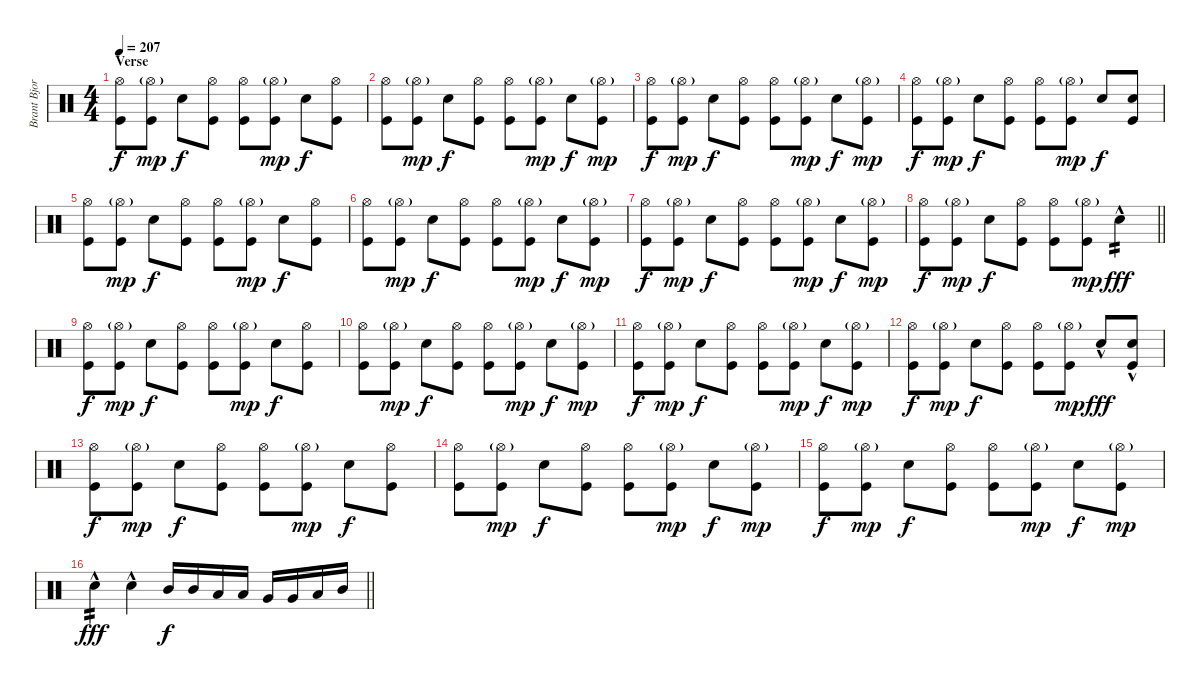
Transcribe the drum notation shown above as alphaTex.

\track ("Brant Bjork - Drums" "Brant Bjor") {instrument percussion}
\staff {score}
\articulation defaults
\ts (4 4)
\section ("" "Verse")
\tempo 207
\clef neutral
\ks c
("Hi-Hat (open)" "Kick (hit)").8{dy f} ("Hi-Hat (open)"{g} "Kick (hit)").8{dy mp} "Snare (hit) 2".8{dy f} ("Hi-Hat (open)" "Kick (hit)").8 ("Hi-Hat (open)" "Kick (hit)").8 ("Hi-Hat (open)"{g} "Kick (hit)").8{dy mp} "Snare (hit) 2".8{dy f} ("Hi-Hat (open)" "Kick (hit)").8 |
("Hi-Hat (open)" "Kick (hit)").8 ("Hi-Hat (open)"{g} "Kick (hit)").8{dy mp} "Snare (hit) 2".8{dy f} ("Hi-Hat (open)" "Kick (hit)").8 ("Hi-Hat (open)" "Kick (hit)").8 ("Hi-Hat (open)"{g} "Kick (hit)").8{dy mp} "Snare (hit) 2".8{dy f} ("Hi-Hat (open)"{g} "Kick (hit)").8{dy mp} |
("Hi-Hat (open)" "Kick (hit)").8{dy f} ("Hi-Hat (open)"{g} "Kick (hit)").8{dy mp} "Snare (hit) 2".8{dy f} ("Hi-Hat (open)" "Kick (hit)").8 ("Hi-Hat (open)" "Kick (hit)").8 ("Hi-Hat (open)"{g} "Kick (hit)").8{dy mp} "Snare (hit) 2".8{dy f} ("Hi-Hat (open)"{g} "Kick (hit)").8{dy mp} |
("Hi-Hat (open)" "Kick (hit)").8{dy f} ("Hi-Hat (open)"{g} "Kick (hit)").8{dy mp} "Snare (hit) 2".8{dy f} ("Hi-Hat (open)" "Kick (hit)").8 ("Hi-Hat (open)" "Kick (hit)").8 ("Hi-Hat (open)"{g} "Kick (hit)").8{dy mp} "Snare (hit) 2".8{dy f} ("Snare (hit) 2" "Kick (hit)").8 |
("Hi-Hat (open)" "Kick (hit)").8 ("Hi-Hat (open)"{g} "Kick (hit)").8{dy mp} "Snare (hit) 2".8{dy f} ("Hi-Hat (open)" "Kick (hit)").8 ("Hi-Hat (open)" "Kick (hit)").8 ("Hi-Hat (open)"{g} "Kick (hit)").8{dy mp} "Snare (hit) 2".8{dy f} ("Hi-Hat (open)" "Kick (hit)").8 |
("Hi-Hat (open)" "Kick (hit)").8 ("Hi-Hat (open)"{g} "Kick (hit)").8{dy mp} "Snare (hit) 2".8{dy f} ("Hi-Hat (open)" "Kick (hit)").8 ("Hi-Hat (open)" "Kick (hit)").8 ("Hi-Hat (open)"{g} "Kick (hit)").8{dy mp} "Snare (hit) 2".8{dy f} ("Hi-Hat (open)"{g} "Kick (hit)").8{dy mp} |
("Hi-Hat (open)" "Kick (hit)").8{dy f} ("Hi-Hat (open)"{g} "Kick (hit)").8{dy mp} "Snare (hit) 2".8{dy f} ("Hi-Hat (open)" "Kick (hit)").8 ("Hi-Hat (open)" "Kick (hit)").8 ("Hi-Hat (open)"{g} "Kick (hit)").8{dy mp} "Snare (hit) 2".8{dy f} ("Hi-Hat (open)"{g} "Kick (hit)").8{dy mp} |
\barLineRight lightlight
("Hi-Hat (open)" "Kick (hit)").8{dy f} ("Hi-Hat (open)"{g} "Kick (hit)").8{dy mp} "Snare (hit) 2".8{dy f} ("Hi-Hat (open)" "Kick (hit)").8 ("Hi-Hat (open)" "Kick (hit)").8 ("Hi-Hat (open)"{g} "Kick (hit)").8{dy mp} "Snare (hit) 2"{hac}.4{tp 2 dy fff} |
("Hi-Hat (open)" "Kick (hit)").8{dy f} ("Hi-Hat (open)"{g} "Kick (hit)").8{dy mp} "Snare (hit) 2".8{dy f} ("Hi-Hat (open)" "Kick (hit)").8 ("Hi-Hat (open)" "Kick (hit)").8 ("Hi-Hat (open)"{g} "Kick (hit)").8{dy mp} "Snare (hit) 2".8{dy f} ("Hi-Hat (open)" "Kick (hit)").8 |
("Hi-Hat (open)" "Kick (hit)").8 ("Hi-Hat (open)"{g} "Kick (hit)").8{dy mp} "Snare (hit) 2".8{dy f} ("Hi-Hat (open)" "Kick (hit)").8 ("Hi-Hat (open)" "Kick (hit)").8 ("Hi-Hat (open)"{g} "Kick (hit)").8{dy mp} "Snare (hit) 2".8{dy f} ("Hi-Hat (open)"{g} "Kick (hit)").8{dy mp} |
("Hi-Hat (open)" "Kick (hit)").8{dy f} ("Hi-Hat (open)"{g} "Kick (hit)").8{dy mp} "Snare (hit) 2".8{dy f} ("Hi-Hat (open)" "Kick (hit)").8 ("Hi-Hat (open)" "Kick (hit)").8 ("Hi-Hat (open)"{g} "Kick (hit)").8{dy mp} "Snare (hit) 2".8{dy f} ("Hi-Hat (open)"{g} "Kick (hit)").8{dy mp} |
("Hi-Hat (open)" "Kick (hit)").8{dy f} ("Hi-Hat (open)"{g} "Kick (hit)").8{dy mp} "Snare (hit) 2".8{dy f} ("Hi-Hat (open)" "Kick (hit)").8 ("Hi-Hat (open)" "Kick (hit)").8 ("Hi-Hat (open)"{g} "Kick (hit)").8{dy mp} "Snare (hit) 2"{hac}.8{dy fff} ("Snare (hit) 2"{hac} "Kick (hit)").8 |
("Hi-Hat (open)" "Kick (hit)").8{dy f} ("Hi-Hat (open)"{g} "Kick (hit)").8{dy mp} "Snare (hit) 2".8{dy f} ("Hi-Hat (open)" "Kick (hit)").8 ("Hi-Hat (open)" "Kick (hit)").8 ("Hi-Hat (open)"{g} "Kick (hit)").8{dy mp} "Snare (hit) 2".8{dy f} ("Hi-Hat (open)" "Kick (hit)").8 |
("Hi-Hat (open)" "Kick (hit)").8 ("Hi-Hat (open)"{g} "Kick (hit)").8{dy mp} "Snare (hit) 2".8{dy f} ("Hi-Hat (open)" "Kick (hit)").8 ("Hi-Hat (open)" "Kick (hit)").8 ("Hi-Hat (open)"{g} "Kick (hit)").8{dy mp} "Snare (hit) 2".8{dy f} ("Hi-Hat (open)"{g} "Kick (hit)").8{dy mp} |
("Hi-Hat (open)" "Kick (hit)").8{dy f} ("Hi-Hat (open)"{g} "Kick (hit)").8{dy mp} "Snare (hit) 2".8{dy f} ("Hi-Hat (open)" "Kick (hit)").8 ("Hi-Hat (open)" "Kick (hit)").8 ("Hi-Hat (open)"{g} "Kick (hit)").8{dy mp} "Snare (hit) 2".8{dy f} ("Hi-Hat (open)"{g} "Kick (hit)").8{dy mp} |
\barLineRight lightlight "Snare (hit) 2"{hac}.4{tp 2 dy fff} "Snare (hit) 2"{hac}.4 "Mid Tom (hit)".16{dy f} "Mid Tom (hit)".16 "Low Tom (hit)".16 "Low Tom (hit)".16 "Very Low Tom (hit)".16 "Very Low Tom (hit)".16 "Low Tom (hit)".16 "Mid Tom (hit)".16
